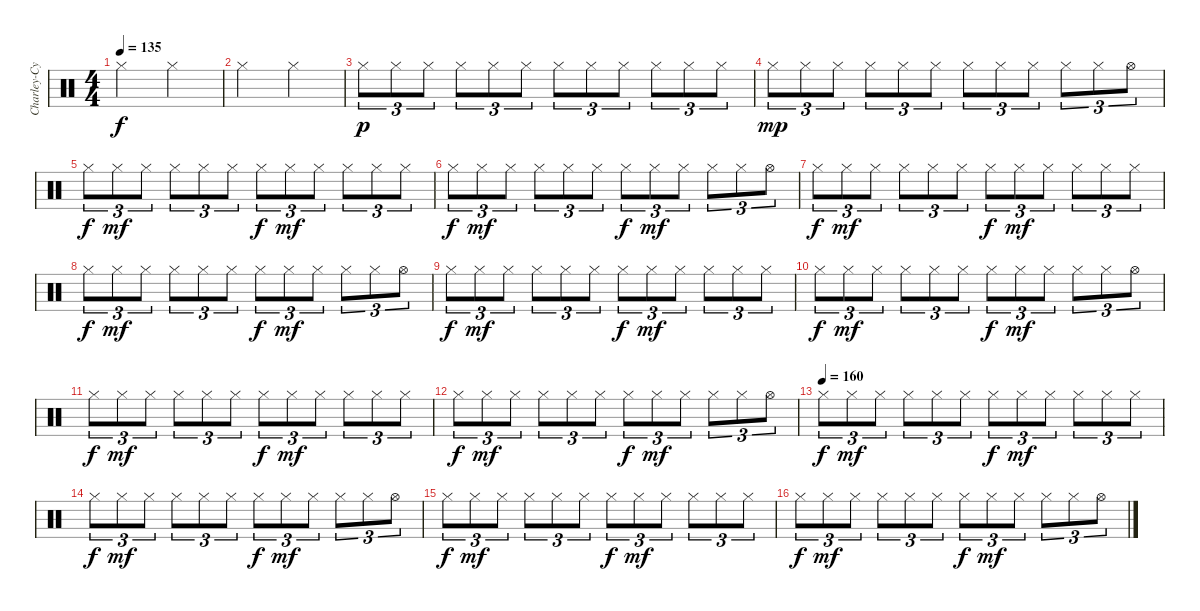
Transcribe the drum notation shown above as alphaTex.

\track ("Charley-Cymbales" "Charley-Cy") {instrument percussion}
\staff {score}
\articulation defaults
\ts (4 4)
\tempo 135
\clef neutral
\ks c "Hi-Hat (closed)".2{dy f} "Hi-Hat (closed)".2
|
"Hi-Hat (closed)".2 "Hi-Hat (closed)".2 |
"Hi-Hat (closed)".8{tu (3 2) dy p} "Hi-Hat (closed)".8{tu (3 2)} "Hi-Hat (closed)".8{tu (3 2)} "Hi-Hat (closed)".8{tu (3 2)} "Hi-Hat (closed)".8{tu (3 2)} "Hi-Hat (closed)".8{tu (3 2)} "Hi-Hat (closed)".8{tu (3 2)} "Hi-Hat (closed)".8{tu (3 2)} "Hi-Hat (closed)".8{tu (3 2)} "Hi-Hat (closed)".8{tu (3 2)} "Hi-Hat (closed)".8{tu (3 2)} "Hi-Hat (closed)".8{tu (3 2)} |
"Hi-Hat (closed)".8{tu (3 2) dy mp} "Hi-Hat (closed)".8{tu (3 2)} "Hi-Hat (closed)".8{tu (3 2)} "Hi-Hat (closed)".8{tu (3 2)} "Hi-Hat (closed)".8{tu (3 2)} "Hi-Hat (closed)".8{tu (3 2)} "Hi-Hat (closed)".8{tu (3 2)} "Hi-Hat (closed)".8{tu (3 2)} "Hi-Hat (closed)".8{tu (3 2)} "Hi-Hat (closed)".8{tu (3 2)} "Hi-Hat (closed)".8{tu (3 2)} "Hi-Hat (open)".8{tu (3 2)} |
"Hi-Hat (closed)".8{tu (3 2) dy f} "Hi-Hat (closed)".8{tu (3 2) dy mf} "Hi-Hat (closed)".8{tu (3 2)} "Hi-Hat (closed)".8{tu (3 2)} "Hi-Hat (closed)".8{tu (3 2)} "Hi-Hat (closed)".8{tu (3 2)} "Hi-Hat (closed)".8{tu (3 2) dy f} "Hi-Hat (closed)".8{tu (3 2) dy mf} "Hi-Hat (closed)".8{tu (3 2)} "Hi-Hat (closed)".8{tu (3 2)} "Hi-Hat (closed)".8{tu (3 2)} "Hi-Hat (closed)".8{tu (3 2)} |
"Hi-Hat (closed)".8{tu (3 2) dy f} "Hi-Hat (closed)".8{tu (3 2) dy mf} "Hi-Hat (closed)".8{tu (3 2)} "Hi-Hat (closed)".8{tu (3 2)} "Hi-Hat (closed)".8{tu (3 2)} "Hi-Hat (closed)".8{tu (3 2)} "Hi-Hat (closed)".8{tu (3 2) dy f} "Hi-Hat (closed)".8{tu (3 2) dy mf} "Hi-Hat (closed)".8{tu (3 2)} "Hi-Hat (closed)".8{tu (3 2)} "Hi-Hat (closed)".8{tu (3 2)} "Hi-Hat (open)".8{tu (3 2)} |
"Hi-Hat (closed)".8{tu (3 2) dy f} "Hi-Hat (closed)".8{tu (3 2) dy mf} "Hi-Hat (closed)".8{tu (3 2)} "Hi-Hat (closed)".8{tu (3 2)} "Hi-Hat (closed)".8{tu (3 2)} "Hi-Hat (closed)".8{tu (3 2)} "Hi-Hat (closed)".8{tu (3 2) dy f} "Hi-Hat (closed)".8{tu (3 2) dy mf} "Hi-Hat (closed)".8{tu (3 2)} "Hi-Hat (closed)".8{tu (3 2)} "Hi-Hat (closed)".8{tu (3 2)} "Hi-Hat (closed)".8{tu (3 2)} |
"Hi-Hat (closed)".8{tu (3 2) dy f} "Hi-Hat (closed)".8{tu (3 2) dy mf} "Hi-Hat (closed)".8{tu (3 2)} "Hi-Hat (closed)".8{tu (3 2)} "Hi-Hat (closed)".8{tu (3 2)} "Hi-Hat (closed)".8{tu (3 2)} "Hi-Hat (closed)".8{tu (3 2) dy f} "Hi-Hat (closed)".8{tu (3 2) dy mf} "Hi-Hat (closed)".8{tu (3 2)} "Hi-Hat (closed)".8{tu (3 2)} "Hi-Hat (closed)".8{tu (3 2)} "Hi-Hat (open)".8{tu (3 2)} |
"Hi-Hat (closed)".8{tu (3 2) dy f} "Hi-Hat (closed)".8{tu (3 2) dy mf} "Hi-Hat (closed)".8{tu (3 2)} "Hi-Hat (closed)".8{tu (3 2)} "Hi-Hat (closed)".8{tu (3 2)} "Hi-Hat (closed)".8{tu (3 2)} "Hi-Hat (closed)".8{tu (3 2) dy f} "Hi-Hat (closed)".8{tu (3 2) dy mf} "Hi-Hat (closed)".8{tu (3 2)} "Hi-Hat (closed)".8{tu (3 2)} "Hi-Hat (closed)".8{tu (3 2)} "Hi-Hat (closed)".8{tu (3 2)} |
"Hi-Hat (closed)".8{tu (3 2) dy f} "Hi-Hat (closed)".8{tu (3 2) dy mf} "Hi-Hat (closed)".8{tu (3 2)} "Hi-Hat (closed)".8{tu (3 2)} "Hi-Hat (closed)".8{tu (3 2)} "Hi-Hat (closed)".8{tu (3 2)} "Hi-Hat (closed)".8{tu (3 2) dy f} "Hi-Hat (closed)".8{tu (3 2) dy mf} "Hi-Hat (closed)".8{tu (3 2)} "Hi-Hat (closed)".8{tu (3 2)} "Hi-Hat (closed)".8{tu (3 2)} "Hi-Hat (open)".8{tu (3 2)} |
"Hi-Hat (closed)".8{tu (3 2) dy f} "Hi-Hat (closed)".8{tu (3 2) dy mf} "Hi-Hat (closed)".8{tu (3 2)} "Hi-Hat (closed)".8{tu (3 2)} "Hi-Hat (closed)".8{tu (3 2)} "Hi-Hat (closed)".8{tu (3 2)} "Hi-Hat (closed)".8{tu (3 2) dy f} "Hi-Hat (closed)".8{tu (3 2) dy mf} "Hi-Hat (closed)".8{tu (3 2)} "Hi-Hat (closed)".8{tu (3 2)} "Hi-Hat (closed)".8{tu (3 2)} "Hi-Hat (closed)".8{tu (3 2)} |
"Hi-Hat (closed)".8{tu (3 2) dy f} "Hi-Hat (closed)".8{tu (3 2) dy mf} "Hi-Hat (closed)".8{tu (3 2)} "Hi-Hat (closed)".8{tu (3 2)} "Hi-Hat (closed)".8{tu (3 2)} "Hi-Hat (closed)".8{tu (3 2)} "Hi-Hat (closed)".8{tu (3 2) dy f} "Hi-Hat (closed)".8{tu (3 2) dy mf} "Hi-Hat (closed)".8{tu (3 2)} "Hi-Hat (closed)".8{tu (3 2)} "Hi-Hat (closed)".8{tu (3 2)} "Hi-Hat (open)".8{tu (3 2)} |
\tempo (160)
"Hi-Hat (closed)".8{tu (3 2) dy f} "Hi-Hat (closed)".8{tu (3 2) dy mf} "Hi-Hat (closed)".8{tu (3 2)} "Hi-Hat (closed)".8{tu (3 2)} "Hi-Hat (closed)".8{tu (3 2)} "Hi-Hat (closed)".8{tu (3 2)} "Hi-Hat (closed)".8{tu (3 2) dy f} "Hi-Hat (closed)".8{tu (3 2) dy mf} "Hi-Hat (closed)".8{tu (3 2)} "Hi-Hat (closed)".8{tu (3 2)} "Hi-Hat (closed)".8{tu (3 2)} "Hi-Hat (closed)".8{tu (3 2)} |
"Hi-Hat (closed)".8{tu (3 2) dy f} "Hi-Hat (closed)".8{tu (3 2) dy mf} "Hi-Hat (closed)".8{tu (3 2)} "Hi-Hat (closed)".8{tu (3 2)} "Hi-Hat (closed)".8{tu (3 2)} "Hi-Hat (closed)".8{tu (3 2)} "Hi-Hat (closed)".8{tu (3 2) dy f} "Hi-Hat (closed)".8{tu (3 2) dy mf} "Hi-Hat (closed)".8{tu (3 2)} "Hi-Hat (closed)".8{tu (3 2)} "Hi-Hat (closed)".8{tu (3 2)} "Hi-Hat (open)".8{tu (3 2)} |
"Hi-Hat (closed)".8{tu (3 2) dy f} "Hi-Hat (closed)".8{tu (3 2) dy mf} "Hi-Hat (closed)".8{tu (3 2)} "Hi-Hat (closed)".8{tu (3 2)} "Hi-Hat (closed)".8{tu (3 2)} "Hi-Hat (closed)".8{tu (3 2)} "Hi-Hat (closed)".8{tu (3 2) dy f} "Hi-Hat (closed)".8{tu (3 2) dy mf} "Hi-Hat (closed)".8{tu (3 2)} "Hi-Hat (closed)".8{tu (3 2)} "Hi-Hat (closed)".8{tu (3 2)} "Hi-Hat (closed)".8{tu (3 2)} |
"Hi-Hat (closed)".8{tu (3 2) dy f} "Hi-Hat (closed)".8{tu (3 2) dy mf} "Hi-Hat (closed)".8{tu (3 2)} "Hi-Hat (closed)".8{tu (3 2)} "Hi-Hat (closed)".8{tu (3 2)} "Hi-Hat (closed)".8{tu (3 2)} "Hi-Hat (closed)".8{tu (3 2) dy f} "Hi-Hat (closed)".8{tu (3 2) dy mf} "Hi-Hat (closed)".8{tu (3 2)} "Hi-Hat (closed)".8{tu (3 2)} "Hi-Hat (closed)".8{tu (3 2)} "Hi-Hat (open)".8{tu (3 2)}
